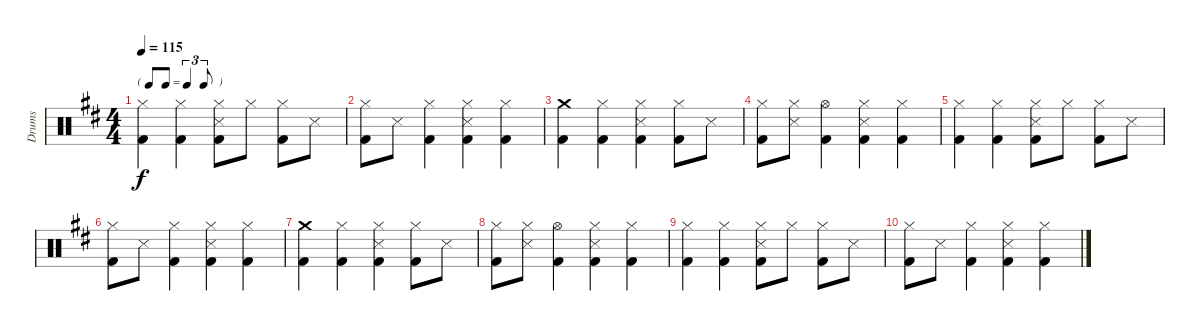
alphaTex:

\track ("Drums" "Drums") {instrument percussion}
\staff {score}
\articulation defaults
\ts (4 4)
\tf triplet8th
\tempo 115
\clef neutral
\ks d
("Hi-Hat (closed)" "Kick (hit) 2").4{dy f} ("Hi-Hat (closed)" "Kick (hit) 2").4 ("Hi-Hat (closed)" "Snare (side stick) 3" "Kick (hit) 2").8 "Hi-Hat (closed)".8 ("Hi-Hat (closed)" "Kick (hit) 2").8 "Snare (side stick) 3".8 |
("Hi-Hat (closed)" "Kick (hit) 2").8{volume 7} "Snare (side stick) 3".8 ("Hi-Hat (closed)" "Kick (hit) 2").4 ("Hi-Hat (closed)" "Snare (side stick) 3" "Kick (hit) 2").4 ("Hi-Hat (closed)" "Kick (hit) 2").4 |
("Crash medium (hit)" "Kick (hit) 2").4 ("Hi-Hat (closed)" "Kick (hit) 2").4 ("Hi-Hat (closed)" "Snare (side stick) 3" "Kick (hit) 2").4 ("Hi-Hat (closed)" "Kick (hit) 2").8 "Snare (side stick) 3".8 |
("Hi-Hat (closed)" "Kick (hit) 2").8 ("Hi-Hat (closed)" "Snare (side stick) 3").8 ("Hi-Hat (open)" "Kick (hit) 2").4 ("Hi-Hat (closed)" "Snare (side stick) 3" "Kick (hit) 2").4 ("Hi-Hat (closed)" "Kick (hit) 2").4 |
("Hi-Hat (closed)" "Kick (hit) 2").4 ("Hi-Hat (closed)" "Kick (hit) 2").4 ("Hi-Hat (closed)" "Snare (side stick) 3" "Kick (hit) 2").8 "Hi-Hat (closed)".8 ("Hi-Hat (closed)" "Kick (hit) 2").8 "Snare (side stick) 3".8 |
("Hi-Hat (closed)" "Kick (hit) 2").8{volume 2} "Snare (side stick) 3".8 ("Hi-Hat (closed)" "Kick (hit) 2").4 ("Hi-Hat (closed)" "Snare (side stick) 3" "Kick (hit) 2").4 ("Hi-Hat (closed)" "Kick (hit) 2").4 |
("Crash medium (hit)" "Kick (hit) 2").4 ("Hi-Hat (closed)" "Kick (hit) 2").4 ("Hi-Hat (closed)" "Snare (side stick) 3" "Kick (hit) 2").4 ("Hi-Hat (closed)" "Kick (hit) 2").8 "Snare (side stick) 3".8 |
("Hi-Hat (closed)" "Kick (hit) 2").8 ("Hi-Hat (closed)" "Snare (side stick) 3").8 ("Hi-Hat (open)" "Kick (hit) 2").4 ("Hi-Hat (closed)" "Snare (side stick) 3" "Kick (hit) 2").4 ("Hi-Hat (closed)" "Kick (hit) 2").4 |
("Hi-Hat (closed)" "Kick (hit) 2").4 ("Hi-Hat (closed)" "Kick (hit) 2").4 ("Hi-Hat (closed)" "Snare (side stick) 3" "Kick (hit) 2").8 "Hi-Hat (closed)".8 ("Hi-Hat (closed)" "Kick (hit) 2").8 "Snare (side stick) 3".8 |
("Hi-Hat (closed)" "Kick (hit) 2").8{volume 0} "Snare (side stick) 3".8 ("Hi-Hat (closed)" "Kick (hit) 2").4 ("Hi-Hat (closed)" "Snare (side stick) 3" "Kick (hit) 2").4 ("Hi-Hat (closed)" "Kick (hit) 2").4
